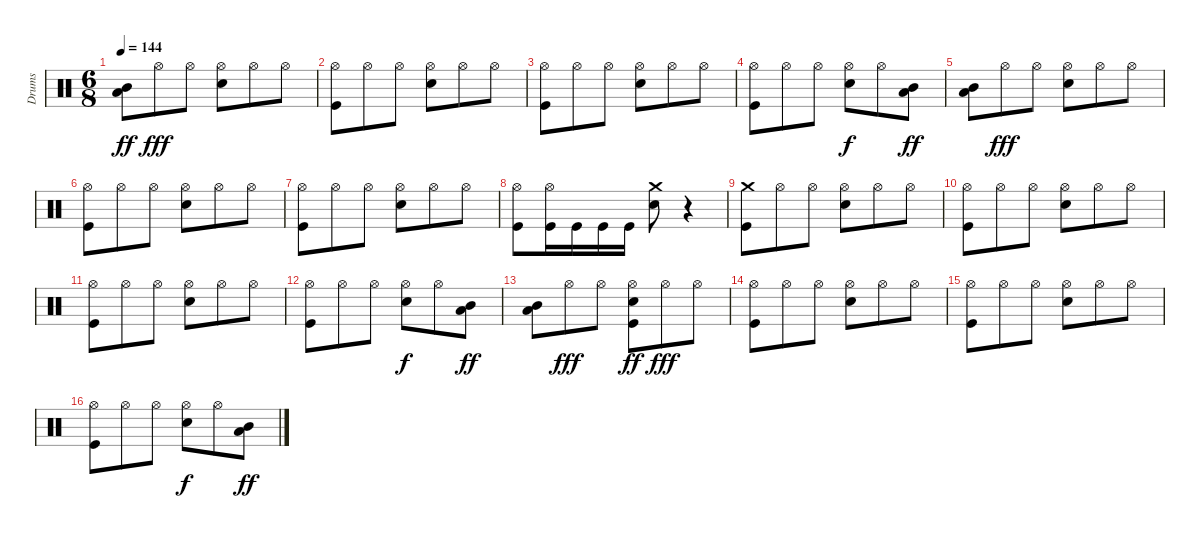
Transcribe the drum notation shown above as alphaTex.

\track ("Drums" "Drums") {instrument percussion}
\staff {score}
\articulation defaults
\ts (6 8)
\tempo 144
\clef neutral
\ks c
("Low Tom (hit)" "Mid Tom (hit)").8{dy ff} "Hi-Hat (open)".8{dy fff} "Hi-Hat (open)".8 ("Hi-Hat (open)" "Snare (hit) 2").8 "Hi-Hat (open)".8 "Hi-Hat (open)".8 |
("Hi-Hat (open)" "Kick (hit)").8 "Hi-Hat (open)".8 "Hi-Hat (open)".8 ("Hi-Hat (open)" "Snare (hit) 2").8 "Hi-Hat (open)".8 "Hi-Hat (open)".8 |
("Hi-Hat (open)" "Kick (hit)").8 "Hi-Hat (open)".8 "Hi-Hat (open)".8 ("Hi-Hat (open)" "Snare (hit) 2").8 "Hi-Hat (open)".8 "Hi-Hat (open)".8 |
("Hi-Hat (open)" "Kick (hit)").8 "Hi-Hat (open)".8 "Hi-Hat (open)".8 ("Hi-Hat (open)" "Snare (hit) 2").8{dy f} "Hi-Hat (open)".8 ("Low Tom (hit)" "Mid Tom (hit)").8{dy ff} |
("Low Tom (hit)" "Mid Tom (hit)").8 "Hi-Hat (open)".8{dy fff} "Hi-Hat (open)".8 ("Hi-Hat (open)" "Snare (hit) 2").8 "Hi-Hat (open)".8 "Hi-Hat (open)".8 |
("Hi-Hat (open)" "Kick (hit)").8 "Hi-Hat (open)".8 "Hi-Hat (open)".8 ("Hi-Hat (open)" "Snare (hit) 2").8 "Hi-Hat (open)".8 "Hi-Hat (open)".8 |
("Hi-Hat (open)" "Kick (hit)").8 "Hi-Hat (open)".8 "Hi-Hat (open)".8 ("Hi-Hat (open)" "Snare (hit) 2").8 "Hi-Hat (open)".8 "Hi-Hat (open)".8 |
("Hi-Hat (open)" "Kick (hit)").8 ("Hi-Hat (open)" "Kick (hit)").16 "Kick (hit)".16 "Kick (hit)".16 "Kick (hit)".16 ("Crash medium (hit)" "Snare (hit) 2").8 r.4 |
("Crash medium (hit)" "Kick (hit)").8 "Hi-Hat (open)".8 "Hi-Hat (open)".8 ("Hi-Hat (open)" "Snare (hit) 2").8 "Hi-Hat (open)".8 "Hi-Hat (open)".8 |
("Hi-Hat (open)" "Kick (hit)").8 "Hi-Hat (open)".8 "Hi-Hat (open)".8 ("Hi-Hat (open)" "Snare (hit) 2").8 "Hi-Hat (open)".8 "Hi-Hat (open)".8 |
("Hi-Hat (open)" "Kick (hit)").8 "Hi-Hat (open)".8 "Hi-Hat (open)".8 ("Hi-Hat (open)" "Snare (hit) 2").8 "Hi-Hat (open)".8 "Hi-Hat (open)".8 |
("Hi-Hat (open)" "Kick (hit)").8 "Hi-Hat (open)".8 "Hi-Hat (open)".8 ("Hi-Hat (open)" "Snare (hit) 2").8{dy f} "Hi-Hat (open)".8 ("Low Tom (hit)" "Mid Tom (hit)").8{dy ff} |
("Low Tom (hit)" "Mid Tom (hit)").8 "Hi-Hat (open)".8{dy fff} "Hi-Hat (open)".8 ("Hi-Hat (open)" "Snare (hit) 2" "Kick (hit)").8{dy ff} "Hi-Hat (open)".8{dy fff} "Hi-Hat (open)".8 |
("Hi-Hat (open)" "Kick (hit)").8 "Hi-Hat (open)".8 "Hi-Hat (open)".8 ("Hi-Hat (open)" "Snare (hit) 2").8 "Hi-Hat (open)".8 "Hi-Hat (open)".8 |
("Hi-Hat (open)" "Kick (hit)").8 "Hi-Hat (open)".8 "Hi-Hat (open)".8 ("Hi-Hat (open)" "Snare (hit) 2").8 "Hi-Hat (open)".8 "Hi-Hat (open)".8 |
("Hi-Hat (open)" "Kick (hit)").8 "Hi-Hat (open)".8 "Hi-Hat (open)".8 ("Hi-Hat (open)" "Snare (hit) 2").8{dy f} "Hi-Hat (open)".8 ("Low Tom (hit)" "Mid Tom (hit)").8{dy ff}
